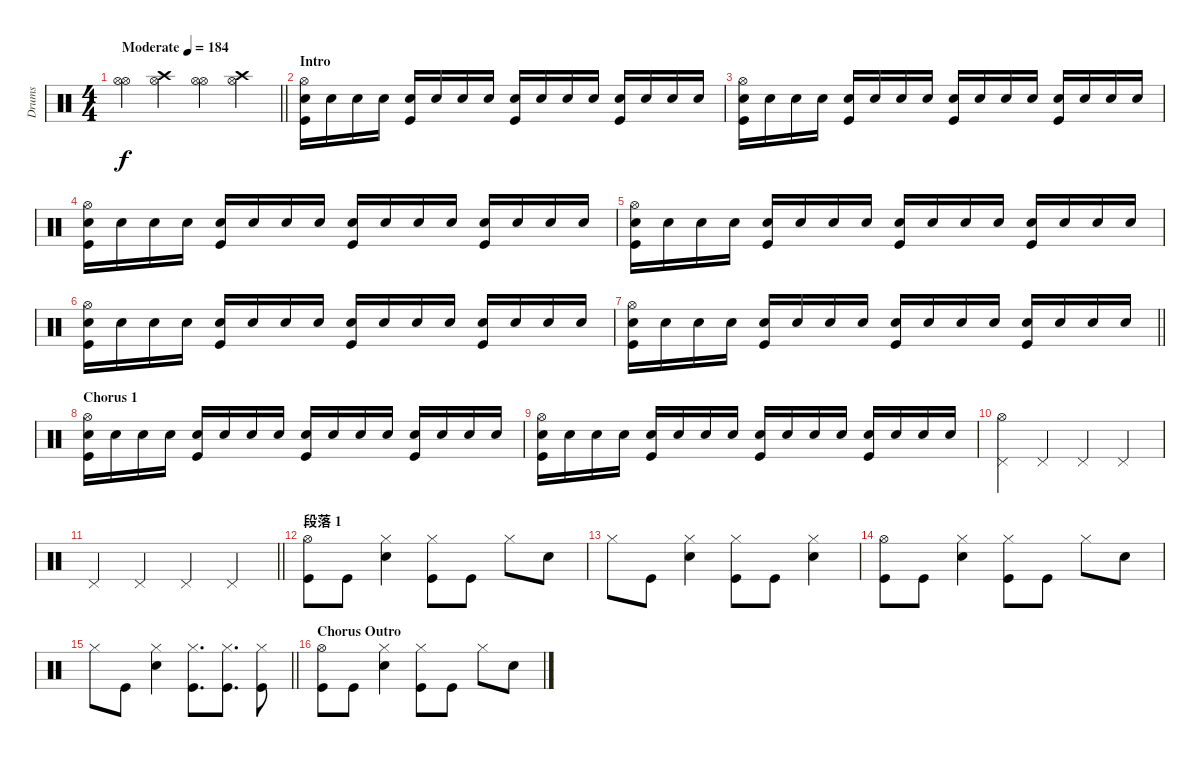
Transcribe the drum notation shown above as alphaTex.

\track (" Drums" " Drums") {instrument percussion}
\staff {score}
\articulation defaults
\ts (4 4)
\tempo (184 "Moderate")
\clef neutral
\barLineRight lightlight
\ks c
("Hi-Hat (open)" "Hi-Hat (open)").4{dy f} ("Hi-Hat (open)" "Crash high (hit)").4 ("Hi-Hat (open)" "Hi-Hat (open)").4 ("Hi-Hat (open)" "Crash high (hit)").4 |
\section ("" "Intro")
("Hi-Hat (open)" "Kick (hit)" "Snare (hit) 2").16 "Snare (hit) 2".16 "Snare (hit) 2".16 "Snare (hit) 2".16 ("Kick (hit)" "Snare (hit) 2").16 "Snare (hit) 2".16 "Snare (hit) 2".16 "Snare (hit) 2".16 ("Kick (hit)" "Snare (hit) 2").16 "Snare (hit) 2".16 "Snare (hit) 2".16 "Snare (hit) 2".16 ("Kick (hit)" "Snare (hit) 2").16 "Snare (hit) 2".16 "Snare (hit) 2".16 "Snare (hit) 2".16 |
("Hi-Hat (open)" "Kick (hit)" "Snare (hit) 2").16 "Snare (hit) 2".16 "Snare (hit) 2".16 "Snare (hit) 2".16 ("Kick (hit)" "Snare (hit) 2").16 "Snare (hit) 2".16 "Snare (hit) 2".16 "Snare (hit) 2".16 ("Kick (hit)" "Snare (hit) 2").16 "Snare (hit) 2".16 "Snare (hit) 2".16 "Snare (hit) 2".16 ("Kick (hit)" "Snare (hit) 2").16 "Snare (hit) 2".16 "Snare (hit) 2".16 "Snare (hit) 2".16 |
("Hi-Hat (open)" "Kick (hit)" "Snare (hit) 2").16 "Snare (hit) 2".16 "Snare (hit) 2".16 "Snare (hit) 2".16 ("Kick (hit)" "Snare (hit) 2").16 "Snare (hit) 2".16 "Snare (hit) 2".16 "Snare (hit) 2".16 ("Kick (hit)" "Snare (hit) 2").16 "Snare (hit) 2".16 "Snare (hit) 2".16 "Snare (hit) 2".16 ("Kick (hit)" "Snare (hit) 2").16 "Snare (hit) 2".16 "Snare (hit) 2".16 "Snare (hit) 2".16 |
("Hi-Hat (open)" "Kick (hit)" "Snare (hit) 2").16 "Snare (hit) 2".16 "Snare (hit) 2".16 "Snare (hit) 2".16 ("Kick (hit)" "Snare (hit) 2").16 "Snare (hit) 2".16 "Snare (hit) 2".16 "Snare (hit) 2".16 ("Kick (hit)" "Snare (hit) 2").16 "Snare (hit) 2".16 "Snare (hit) 2".16 "Snare (hit) 2".16 ("Kick (hit)" "Snare (hit) 2").16 "Snare (hit) 2".16 "Snare (hit) 2".16 "Snare (hit) 2".16 |
("Hi-Hat (open)" "Kick (hit)" "Snare (hit) 2").16 "Snare (hit) 2".16 "Snare (hit) 2".16 "Snare (hit) 2".16 ("Kick (hit)" "Snare (hit) 2").16 "Snare (hit) 2".16 "Snare (hit) 2".16 "Snare (hit) 2".16 ("Kick (hit)" "Snare (hit) 2").16 "Snare (hit) 2".16 "Snare (hit) 2".16 "Snare (hit) 2".16 ("Kick (hit)" "Snare (hit) 2").16 "Snare (hit) 2".16 "Snare (hit) 2".16 "Snare (hit) 2".16 |
\barLineRight lightlight
("Hi-Hat (open)" "Kick (hit)" "Snare (hit) 2").16 "Snare (hit) 2".16 "Snare (hit) 2".16 "Snare (hit) 2".16 ("Kick (hit)" "Snare (hit) 2").16 "Snare (hit) 2".16 "Snare (hit) 2".16 "Snare (hit) 2".16 ("Kick (hit)" "Snare (hit) 2").16 "Snare (hit) 2".16 "Snare (hit) 2".16 "Snare (hit) 2".16 ("Kick (hit)" "Snare (hit) 2").16 "Snare (hit) 2".16 "Snare (hit) 2".16 "Snare (hit) 2".16 |
\section ("" "Chorus 1")
("Hi-Hat (open)" "Kick (hit)" "Snare (hit) 2").16 "Snare (hit) 2".16 "Snare (hit) 2".16 "Snare (hit) 2".16 ("Kick (hit)" "Snare (hit) 2").16 "Snare (hit) 2".16 "Snare (hit) 2".16 "Snare (hit) 2".16 ("Kick (hit)" "Snare (hit) 2").16 "Snare (hit) 2".16 "Snare (hit) 2".16 "Snare (hit) 2".16 ("Kick (hit)" "Snare (hit) 2").16 "Snare (hit) 2".16 "Snare (hit) 2".16 "Snare (hit) 2".16 |
("Hi-Hat (open)" "Kick (hit)" "Snare (hit) 2").16 "Snare (hit) 2".16 "Snare (hit) 2".16 "Snare (hit) 2".16 ("Kick (hit)" "Snare (hit) 2").16 "Snare (hit) 2".16 "Snare (hit) 2".16 "Snare (hit) 2".16 ("Kick (hit)" "Snare (hit) 2").16 "Snare (hit) 2".16 "Snare (hit) 2".16 "Snare (hit) 2".16 ("Kick (hit)" "Snare (hit) 2").16 "Snare (hit) 2".16 "Snare (hit) 2".16 "Snare (hit) 2".16 |
("Hi-Hat (open)" "Pedal Hi-Hat (hit)").4 "Pedal Hi-Hat (hit)".4 "Pedal Hi-Hat (hit)".4 "Pedal Hi-Hat (hit)".4 |
\barLineRight lightlight "Pedal Hi-Hat (hit)".4 "Pedal Hi-Hat (hit)".4 "Pedal Hi-Hat (hit)".4 "Pedal Hi-Hat (hit)".4
|
\section ("" "段落 1")
("Kick (hit)" "Hi-Hat (open)").8 "Kick (hit)".8 ("Hi-Hat (closed)" "Snare (hit) 2").4 ("Hi-Hat (closed)" "Kick (hit)").8 "Kick (hit)".8 "Hi-Hat (closed)".8 "Snare (hit) 2".8 |
"Hi-Hat (closed)".8 "Kick (hit)".8 ("Snare (hit) 2" "Hi-Hat (closed)").4 ("Kick (hit)" "Hi-Hat (closed)").8 "Kick (hit)".8 ("Snare (hit) 2" "Hi-Hat (closed)").4 |
("Hi-Hat (open)" "Kick (hit)").8 "Kick (hit)".8 ("Hi-Hat (closed)" "Snare (hit) 2").4 ("Hi-Hat (closed)" "Kick (hit)").8 "Kick (hit)".8 "Hi-Hat (closed)".8 "Snare (hit) 2".8 |
\barLineRight lightlight "Hi-Hat (closed)".8 "Kick (hit)".8
("Snare (hit) 2" "Hi-Hat (closed)").4 ("Kick (hit)" "Hi-Hat (closed)").8{d} ("Kick (hit)" "Hi-Hat (closed)").8{d} ("Kick (hit)" "Hi-Hat (closed)").8 |
\section ("" "Chorus Outro")
("Hi-Hat (open)" "Kick (hit)").8 "Kick (hit)".8 ("Hi-Hat (closed)" "Snare (hit) 2").4 ("Hi-Hat (closed)" "Kick (hit)").8 "Kick (hit)".8 "Hi-Hat (closed)".8 "Snare (hit) 2".8
